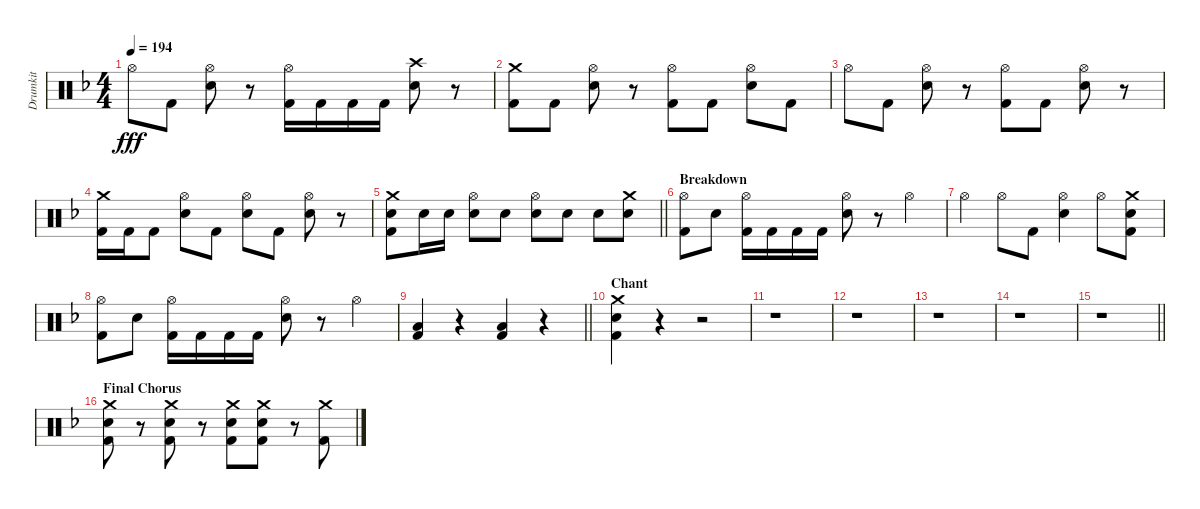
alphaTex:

\track ("Drumkit" "Drumkit") {instrument percussion}
\staff {score}
\articulation defaults
\ts (4 4)
\tempo 194
\clef neutral
\ks f "Hi-Hat (open)".8{dy fff} "Kick (hit) 2".8
("Hi-Hat (open)" "Snare (hit) 2").8 r.8 ("Hi-Hat (open)" "Kick (hit) 2").16 "Kick (hit) 2".16 "Kick (hit) 2".16 "Kick (hit) 2".16 ("Crash high (hit)" "Snare (hit) 2").8 r.8 |
("Crash medium (hit)" "Kick (hit) 2").8 "Kick (hit) 2".8 ("Hi-Hat (open)" "Snare (hit) 2").8 r.8 ("Hi-Hat (open)" "Kick (hit) 2").8 "Kick (hit) 2".8 ("Hi-Hat (open)" "Snare (hit) 2").8 "Kick (hit) 2".8 |
"Hi-Hat (open)".8 "Kick (hit) 2".8 ("Hi-Hat (open)" "Snare (hit) 2").8 r.8 ("Hi-Hat (open)" "Kick (hit) 2").8 "Kick (hit) 2".8 ("Hi-Hat (open)" "Snare (hit) 2").8 r.8 |
("Crash medium (hit)" "Kick (hit) 2").16 "Kick (hit) 2".16 "Kick (hit) 2".8 ("Hi-Hat (open)" "Snare (hit) 2").8 "Kick (hit) 2".8 ("Hi-Hat (open)" "Snare (hit) 2").8 "Kick (hit) 2".8 ("Hi-Hat (open)" "Snare (hit) 2").8 r.8 |
\barLineRight lightlight
("Crash medium (hit)" "Snare (hit) 2" "Kick (hit) 2").8 "Snare (hit) 2".16 "Snare (hit) 2".16 ("Hi-Hat (open)" "Snare (hit) 2").8 "Snare (hit) 2".8 ("Hi-Hat (open)" "Snare (hit) 2").8 "Snare (hit) 2".8 "Snare (hit) 2".8 ("Crash medium (hit)" "Snare (hit) 2").8 |
\section ("" "Breakdown")
("Hi-Hat (open)" "Kick (hit) 2").8 "Snare (hit) 2".8 ("Hi-Hat (open)" "Kick (hit) 2").16 "Kick (hit) 2".16 "Kick (hit) 2".16 "Kick (hit) 2".16 ("Hi-Hat (open)" "Snare (hit) 2").8 r.8 "Hi-Hat (open)".4 |
"Hi-Hat (open)".4 "Hi-Hat (open)".8 "Kick (hit) 2".8 ("Hi-Hat (open)" "Snare (hit) 2").4 "Hi-Hat (open)".8 ("Crash medium (hit)" "Snare (hit) 2" "Kick (hit) 2").8 |
("Hi-Hat (open)" "Kick (hit) 2").8 "Snare (hit) 2".8 ("Hi-Hat (open)" "Kick (hit) 2").16 "Kick (hit) 2".16 "Kick (hit) 2".16 "Kick (hit) 2".16 ("Hi-Hat (open)" "Snare (hit) 2").8 r.8 "Hi-Hat (open)".4 |
\barLineRight lightlight
("Low Tom (hit)" "Kick (hit) 2").4 r.4 ("Low Tom (hit)" "Kick (hit) 2").4 r.4 |
\section ("" "Chant")
("Crash medium (hit)" "Snare (hit) 2" "Kick (hit) 2").4 r.4 r.2 |
r.1 |
r.1 |
r.1 |
r.1 |
\barLineRight lightlight
r.1 |
\section ("" "Final Chorus")
("Crash medium (hit)" "Snare (hit) 2" "Kick (hit) 2").8 r.8 ("Crash medium (hit)" "Snare (hit) 2" "Kick (hit) 2").8 r.8 ("Crash medium (hit)" "Snare (hit) 2" "Kick (hit) 2").8 ("Crash medium (hit)" "Snare (hit) 2" "Kick (hit) 2").8 r.8 ("Crash medium (hit)" "Kick (hit) 2").8
